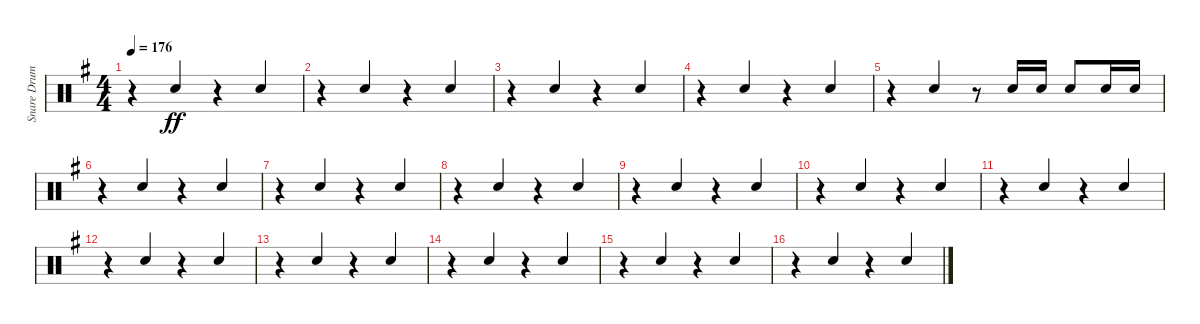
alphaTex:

\track ("Snare Drum" "Snare Drum") {instrument percussion}
\staff {score}
\articulation defaults
\ts (4 4)
\tempo 176
\clef neutral
\ks eminor
r.4{dy ff} "Electric Snare (hit)".4{beam Up} r.4 "Electric Snare (hit)".4{beam Up} |
r.4 "Electric Snare (hit)".4{beam Up} r.4 "Electric Snare (hit)".4{beam Up} |
r.4 "Electric Snare (hit)".4{beam Up} r.4 "Electric Snare (hit)".4{beam Up} |
r.4 "Electric Snare (hit)".4{beam Up} r.4 "Electric Snare (hit)".4{beam Up} |
r.4 "Electric Snare (hit)".4{beam Up} r.8 "Electric Snare (hit)".16{beam Up} "Electric Snare (hit)".16{beam Up} "Electric Snare (hit)".8{beam Up} "Electric Snare (hit)".16{beam Up} "Electric Snare (hit)".16{beam Up} |
r.4 "Electric Snare (hit)".4{beam Up} r.4 "Electric Snare (hit)".4{beam Up} |
r.4 "Electric Snare (hit)".4{beam Up} r.4 "Electric Snare (hit)".4{beam Up} |
r.4 "Electric Snare (hit)".4{beam Up} r.4 "Electric Snare (hit)".4{beam Up} |
r.4 "Electric Snare (hit)".4{beam Up} r.4 "Electric Snare (hit)".4{beam Up} |
r.4 "Electric Snare (hit)".4{beam Up} r.4 "Electric Snare (hit)".4{beam Up} |
r.4 "Electric Snare (hit)".4{beam Up} r.4 "Electric Snare (hit)".4{beam Up} |
r.4 "Electric Snare (hit)".4{beam Up} r.4 "Electric Snare (hit)".4{beam Up} |
r.4 "Electric Snare (hit)".4{beam Up} r.4 "Electric Snare (hit)".4{beam Up} |
r.4 "Electric Snare (hit)".4{beam Up} r.4 "Electric Snare (hit)".4{beam Up} |
r.4 "Electric Snare (hit)".4{beam Up} r.4 "Electric Snare (hit)".4{beam Up} |
r.4 "Electric Snare (hit)".4{beam Up} r.4 "Electric Snare (hit)".4{beam Up}
